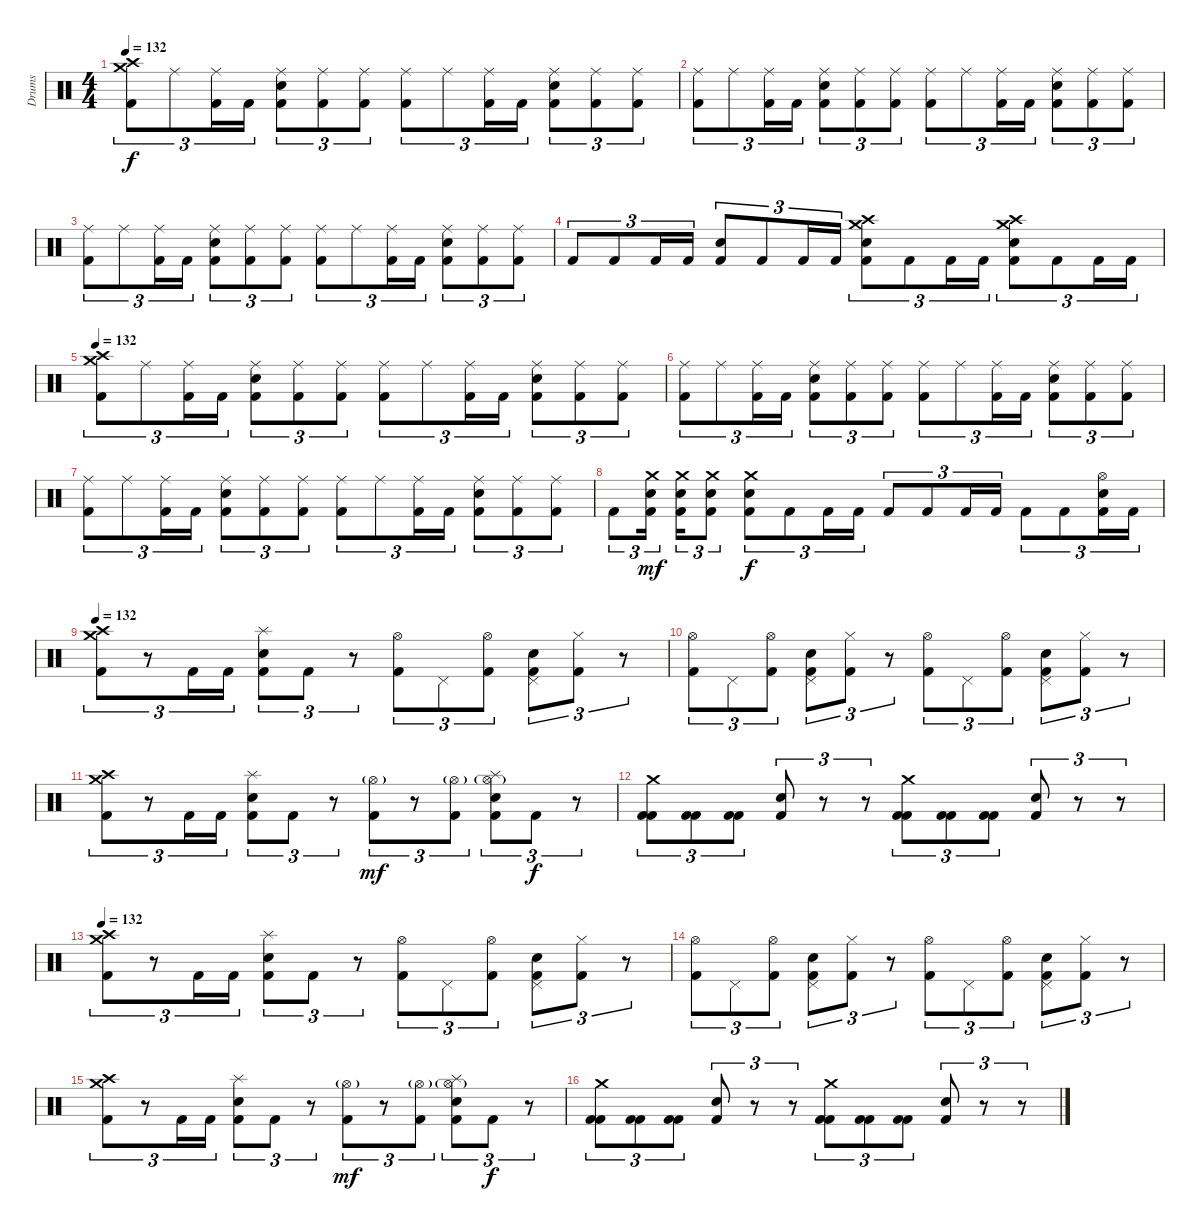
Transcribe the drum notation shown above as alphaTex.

\track ("Drums" "Drums") {instrument percussion}
\staff {score}
\articulation defaults
\ts (4 4)
\tempo 132
\clef neutral
\ks c
("Crash high (hit)" "Crash medium (hit)" "Kick (hit) 2").8{tu (3 2) dy f} "Ride (middle)".8{tu (3 2)} ("Ride (middle)" "Kick (hit) 2").16{tu (3 2)} "Kick (hit) 2".16{tu (3 2)} ("Ride (middle)" "Snare (hit) 2" "Kick (hit) 2").8{tu (3 2)} ("Ride (middle)" "Kick (hit) 2").8{tu (3 2)} ("Ride (middle)" "Kick (hit) 2").8{tu (3 2)} ("Ride (middle)" "Kick (hit) 2").8{tu (3 2)} "Ride (middle)".8{tu (3 2)} ("Ride (middle)" "Kick (hit) 2").16{tu (3 2)} "Kick (hit) 2".16{tu (3 2)} ("Ride (middle)" "Snare (hit) 2" "Kick (hit) 2").8{tu (3 2)} ("Ride (middle)" "Kick (hit) 2").8{tu (3 2)} ("Ride (middle)" "Kick (hit) 2").8{tu (3 2)} |
("Ride (middle)" "Kick (hit) 2").8{tu (3 2)} "Ride (middle)".8{tu (3 2)} ("Ride (middle)" "Kick (hit) 2").16{tu (3 2)} "Kick (hit) 2".16{tu (3 2)} ("Ride (middle)" "Snare (hit) 2" "Kick (hit) 2").8{tu (3 2)} ("Ride (middle)" "Kick (hit) 2").8{tu (3 2)} ("Ride (middle)" "Kick (hit) 2").8{tu (3 2)} ("Ride (middle)" "Kick (hit) 2").8{tu (3 2)} "Ride (middle)".8{tu (3 2)} ("Ride (middle)" "Kick (hit) 2").16{tu (3 2)} "Kick (hit) 2".16{tu (3 2)} ("Ride (middle)" "Snare (hit) 2" "Kick (hit) 2").8{tu (3 2)} ("Ride (middle)" "Kick (hit) 2").8{tu (3 2)} ("Ride (middle)" "Kick (hit) 2").8{tu (3 2)} |
("Ride (middle)" "Kick (hit) 2").8{tu (3 2)} "Ride (middle)".8{tu (3 2)} ("Ride (middle)" "Kick (hit) 2").16{tu (3 2)} "Kick (hit) 2".16{tu (3 2)} ("Ride (middle)" "Snare (hit) 2" "Kick (hit) 2").8{tu (3 2)} ("Ride (middle)" "Kick (hit) 2").8{tu (3 2)} ("Ride (middle)" "Kick (hit) 2").8{tu (3 2)} ("Ride (middle)" "Kick (hit) 2").8{tu (3 2)} "Ride (middle)".8{tu (3 2)} ("Ride (middle)" "Kick (hit) 2").16{tu (3 2)} "Kick (hit) 2".16{tu (3 2)} ("Ride (middle)" "Snare (hit) 2" "Kick (hit) 2").8{tu (3 2)} ("Ride (middle)" "Kick (hit) 2").8{tu (3 2)} ("Ride (middle)" "Kick (hit) 2").8{tu (3 2)} |
"Kick (hit) 2".8{tu (3 2)} "Kick (hit) 2".8{tu (3 2)} "Kick (hit) 2".16{tu (3 2)} "Kick (hit) 2".16{tu (3 2)} ("Snare (hit) 2" "Kick (hit) 2").8{tu (3 2)} "Kick (hit) 2".8{tu (3 2)} "Kick (hit) 2".16{tu (3 2)} "Kick (hit) 2".16{tu (3 2)} ("Crash high (hit)" "Crash medium (hit)" "Snare (hit) 2" "Kick (hit) 2").8{tu (3 2)} "Kick (hit) 2".8{tu (3 2)} "Kick (hit) 2".16{tu (3 2)} "Kick (hit) 2".16{tu (3 2)} ("Crash high (hit)" "Crash medium (hit)" "Snare (hit) 2" "Kick (hit) 2").8{tu (3 2)} "Kick (hit) 2".8{tu (3 2)} "Kick (hit) 2".16{tu (3 2)} "Kick (hit) 2".16{tu (3 2)} |
\tempo 132
("Crash high (hit)" "Crash medium (hit)" "Kick (hit) 2").8{tu (3 2) volume 15} "Ride (middle)".8{tu (3 2)} ("Ride (middle)" "Kick (hit) 2").16{tu (3 2)} "Kick (hit) 2".16{tu (3 2)} ("Ride (middle)" "Snare (hit) 2" "Kick (hit) 2").8{tu (3 2)} ("Ride (middle)" "Kick (hit) 2").8{tu (3 2)} ("Ride (middle)" "Kick (hit) 2").8{tu (3 2)} ("Ride (middle)" "Kick (hit) 2").8{tu (3 2)} "Ride (middle)".8{tu (3 2)} ("Ride (middle)" "Kick (hit) 2").16{tu (3 2)} "Kick (hit) 2".16{tu (3 2)} ("Ride (middle)" "Snare (hit) 2" "Kick (hit) 2").8{tu (3 2)} ("Ride (middle)" "Kick (hit) 2").8{tu (3 2)} ("Ride (middle)" "Kick (hit) 2").8{tu (3 2)} |
("Ride (middle)" "Kick (hit) 2").8{tu (3 2)} "Ride (middle)".8{tu (3 2)} ("Ride (middle)" "Kick (hit) 2").16{tu (3 2)} "Kick (hit) 2".16{tu (3 2)} ("Ride (middle)" "Snare (hit) 2" "Kick (hit) 2").8{tu (3 2)} ("Ride (middle)" "Kick (hit) 2").8{tu (3 2)} ("Ride (middle)" "Kick (hit) 2").8{tu (3 2)} ("Ride (middle)" "Kick (hit) 2").8{tu (3 2)} "Ride (middle)".8{tu (3 2)} ("Ride (middle)" "Kick (hit) 2").16{tu (3 2)} "Kick (hit) 2".16{tu (3 2)} ("Ride (middle)" "Snare (hit) 2" "Kick (hit) 2").8{tu (3 2)} ("Ride (middle)" "Kick (hit) 2").8{tu (3 2)} ("Ride (middle)" "Kick (hit) 2").8{tu (3 2)} |
("Ride (middle)" "Kick (hit) 2").8{tu (3 2)} "Ride (middle)".8{tu (3 2)} ("Ride (middle)" "Kick (hit) 2").16{tu (3 2)} "Kick (hit) 2".16{tu (3 2)} ("Ride (middle)" "Snare (hit) 2" "Kick (hit) 2").8{tu (3 2)} ("Ride (middle)" "Kick (hit) 2").8{tu (3 2)} ("Ride (middle)" "Kick (hit) 2").8{tu (3 2)} ("Ride (middle)" "Kick (hit) 2").8{tu (3 2)} "Ride (middle)".8{tu (3 2)} ("Ride (middle)" "Kick (hit) 2").16{tu (3 2)} "Kick (hit) 2".16{tu (3 2)} ("Ride (middle)" "Snare (hit) 2" "Kick (hit) 2").8{tu (3 2)} ("Ride (middle)" "Kick (hit) 2").8{tu (3 2)} ("Ride (middle)" "Kick (hit) 2").8{tu (3 2)} |
"Kick (hit) 2".8{tu (3 2)} ("Crash medium (hit)" "Snare (hit) 2" "Kick (hit) 2").16{tu (3 2) dy mf} ("Crash medium (hit)" "Snare (hit) 2" "Kick (hit) 2").16{tu (3 2)} ("Crash medium (hit)" "Snare (hit) 2" "Kick (hit) 2").8{tu (3 2)} ("Crash medium (hit)" "Snare (hit) 2" "Kick (hit) 2").8{tu (3 2) dy f} "Kick (hit) 2".8{tu (3 2)} "Kick (hit) 2".16{tu (3 2)} "Kick (hit) 2".16{tu (3 2)} "Kick (hit) 2".8{tu (3 2)} "Kick (hit) 2".8{tu (3 2)} "Kick (hit) 2".16{tu (3 2)} "Kick (hit) 2".16{tu (3 2)} "Kick (hit) 2".8{tu (3 2)} "Kick (hit) 2".8{tu (3 2)} ("Hi-Hat (open)" "Snare (hit) 2" "Kick (hit) 2").16{tu (3 2)} "Kick (hit) 2".16{tu (3 2)} |
\tempo 132
("Crash high (hit)" "Crash medium (hit)" "Kick (hit) 2").8{tu (3 2)} r.8{tu (3 2)} "Kick (hit) 2".16{tu (3 2)} "Kick (hit) 2".16{tu (3 2)} ("Splash (hit)" "Snare (hit) 2" "Kick (hit) 2").8{tu (3 2)} "Kick (hit) 2".8{tu (3 2)} r.8{tu (3 2)} ("Hi-Hat (open)" "Kick (hit) 2").8{tu (3 2)} "Pedal Hi-Hat (hit)".8{tu (3 2)} ("Hi-Hat (open)" "Kick (hit) 2").8{tu (3 2)} ("Pedal Hi-Hat (hit)" "Snare (hit) 2" "Kick (hit) 2").8{tu (3 2)} ("Hi-Hat (closed)" "Kick (hit) 2").8{tu (3 2)} r.8{tu (3 2)} |
("Hi-Hat (open)" "Kick (hit) 2").8{tu (3 2)} "Pedal Hi-Hat (hit)".8{tu (3 2)} ("Hi-Hat (open)" "Kick (hit) 2").8{tu (3 2)} ("Pedal Hi-Hat (hit)" "Snare (hit) 2" "Kick (hit) 2").8{tu (3 2)} ("Hi-Hat (closed)" "Kick (hit) 2").8{tu (3 2)} r.8{tu (3 2)} ("Hi-Hat (open)" "Kick (hit) 2").8{tu (3 2)} "Pedal Hi-Hat (hit)".8{tu (3 2)} ("Hi-Hat (open)" "Kick (hit) 2").8{tu (3 2)} ("Pedal Hi-Hat (hit)" "Snare (hit) 2" "Kick (hit) 2").8{tu (3 2)} ("Hi-Hat (closed)" "Kick (hit) 2").8{tu (3 2)} r.8{tu (3 2)} |
("Crash high (hit)" "Crash medium (hit)" "Kick (hit) 2").8{tu (3 2)} r.8{tu (3 2)} "Kick (hit) 2".16{tu (3 2)} "Kick (hit) 2".16{tu (3 2)} ("Splash (hit)" "Snare (hit) 2" "Kick (hit) 2").8{tu (3 2)} "Kick (hit) 2".8{tu (3 2)} r.8{tu (3 2)} ("Hi-Hat (open)"{g} "Kick (hit) 2").8{tu (3 2) dy mf} r.8{tu (3 2)} ("Hi-Hat (open)"{g} "Kick (hit) 2").8{tu (3 2)} ("Splash (hit)" "Hi-Hat (open)"{g} "Snare (hit) 2" "Kick (hit) 2").8{tu (3 2)} "Kick (hit) 2".8{tu (3 2) dy f} r.8{tu (3 2)} |
("Crash medium (hit)" "Kick (hit) 2" "Kick (hit) 2").8{tu (3 2)} ("Kick (hit) 2" "Kick (hit) 2").8{tu (3 2)} ("Kick (hit) 2" "Kick (hit) 2").8{tu (3 2)} ("Snare (hit) 2" "Kick (hit) 2").8{tu (3 2)} r.8{tu (3 2)} r.8{tu (3 2)} ("Crash medium (hit)" "Kick (hit) 2" "Kick (hit) 2").8{tu (3 2)} ("Kick (hit) 2" "Kick (hit) 2").8{tu (3 2)} ("Kick (hit) 2" "Kick (hit) 2").8{tu (3 2)} ("Snare (hit) 2" "Kick (hit) 2").8{tu (3 2)} r.8{tu (3 2)} r.8{tu (3 2)} |
\tempo 132
("Crash high (hit)" "Crash medium (hit)" "Kick (hit) 2").8{tu (3 2)} r.8{tu (3 2)} "Kick (hit) 2".16{tu (3 2)} "Kick (hit) 2".16{tu (3 2)} ("Splash (hit)" "Snare (hit) 2" "Kick (hit) 2").8{tu (3 2)} "Kick (hit) 2".8{tu (3 2)} r.8{tu (3 2)} ("Hi-Hat (open)" "Kick (hit) 2").8{tu (3 2)} "Pedal Hi-Hat (hit)".8{tu (3 2)} ("Hi-Hat (open)" "Kick (hit) 2").8{tu (3 2)} ("Pedal Hi-Hat (hit)" "Snare (hit) 2" "Kick (hit) 2").8{tu (3 2)} ("Hi-Hat (closed)" "Kick (hit) 2").8{tu (3 2)} r.8{tu (3 2)} |
("Hi-Hat (open)" "Kick (hit) 2").8{tu (3 2)} "Pedal Hi-Hat (hit)".8{tu (3 2)} ("Hi-Hat (open)" "Kick (hit) 2").8{tu (3 2)} ("Pedal Hi-Hat (hit)" "Snare (hit) 2" "Kick (hit) 2").8{tu (3 2)} ("Hi-Hat (closed)" "Kick (hit) 2").8{tu (3 2)} r.8{tu (3 2)} ("Hi-Hat (open)" "Kick (hit) 2").8{tu (3 2)} "Pedal Hi-Hat (hit)".8{tu (3 2)} ("Hi-Hat (open)" "Kick (hit) 2").8{tu (3 2)} ("Pedal Hi-Hat (hit)" "Snare (hit) 2" "Kick (hit) 2").8{tu (3 2)} ("Hi-Hat (closed)" "Kick (hit) 2").8{tu (3 2)} r.8{tu (3 2)} |
("Crash high (hit)" "Crash medium (hit)" "Kick (hit) 2").8{tu (3 2)} r.8{tu (3 2)} "Kick (hit) 2".16{tu (3 2)} "Kick (hit) 2".16{tu (3 2)} ("Splash (hit)" "Snare (hit) 2" "Kick (hit) 2").8{tu (3 2)} "Kick (hit) 2".8{tu (3 2)} r.8{tu (3 2)} ("Hi-Hat (open)"{g} "Kick (hit) 2").8{tu (3 2) dy mf} r.8{tu (3 2)} ("Hi-Hat (open)"{g} "Kick (hit) 2").8{tu (3 2)} ("Splash (hit)" "Hi-Hat (open)"{g} "Snare (hit) 2" "Kick (hit) 2").8{tu (3 2)} "Kick (hit) 2".8{tu (3 2) dy f} r.8{tu (3 2)} |
("Crash medium (hit)" "Kick (hit) 2" "Kick (hit) 2").8{tu (3 2)} ("Kick (hit) 2" "Kick (hit) 2").8{tu (3 2)} ("Kick (hit) 2" "Kick (hit) 2").8{tu (3 2)} ("Snare (hit) 2" "Kick (hit) 2").8{tu (3 2)} r.8{tu (3 2)} r.8{tu (3 2)} ("Crash medium (hit)" "Kick (hit) 2" "Kick (hit) 2").8{tu (3 2)} ("Kick (hit) 2" "Kick (hit) 2").8{tu (3 2)} ("Kick (hit) 2" "Kick (hit) 2").8{tu (3 2)} ("Snare (hit) 2" "Kick (hit) 2").8{tu (3 2)} r.8{tu (3 2)} r.8{tu (3 2)}
